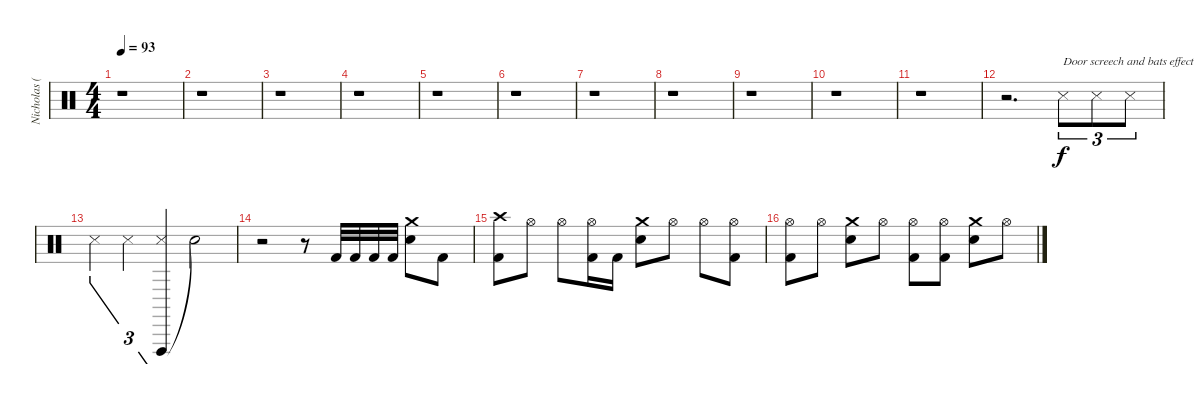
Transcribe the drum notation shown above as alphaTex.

\track ("Nicholas (Drums)" "Nicholas (") {instrument percussion}
\staff {score}
\articulation defaults
\ts (4 4)
\tempo 93
\clef neutral
\ks c
r.1{dy f} |
r.1 |
r.1 |
r.1 |
r.1 |
r.1 |
r.1 |
r.1 |
r.1 |
r.1 |
r.1 |
r.2{d} "Snare (side stick) 3".8{tu (3 2) txt "Door screech and bats effect"} "Snare (side stick) 3".8{tu (3 2)} "Snare (side stick) 3".8{tu (3 2)} |
"Snare (side stick) 3".4{tu (3 2)} "Snare (side stick) 3".4{tu (3 2)} ("Vibraslap (hit)" "Snare (side stick) 3").4{tu (3 2)} "Snare (hit)"{t}.2 |
r.2 r.8 "Kick (hit) 2".32 "Kick (hit) 2".32 "Kick (hit) 2".32 "Kick (hit) 2".32 ("Crash medium (hit)" "Electric Snare (hit)").8 "Kick (hit) 2".8 |
("Crash high (hit)" "Kick (hit) 2").8 "Hi-Hat (open)".8 "Hi-Hat (open)".8 ("Hi-Hat (open)" "Kick (hit) 2").16 "Kick (hit) 2".16 ("Crash medium (hit)" "Electric Snare (hit)").8 "Hi-Hat (open)".8 "Hi-Hat (open)".8 ("Hi-Hat (open)" "Kick (hit) 2").8 |
("Hi-Hat (open)" "Kick (hit) 2").8 "Hi-Hat (open)".8 ("Crash medium (hit)" "Electric Snare (hit)").8 "Hi-Hat (open)".8 ("Hi-Hat (open)" "Kick (hit) 2").8 ("Hi-Hat (open)" "Kick (hit) 2").8 ("Crash medium (hit)" "Electric Snare (hit)").8 "Hi-Hat (open)".8
